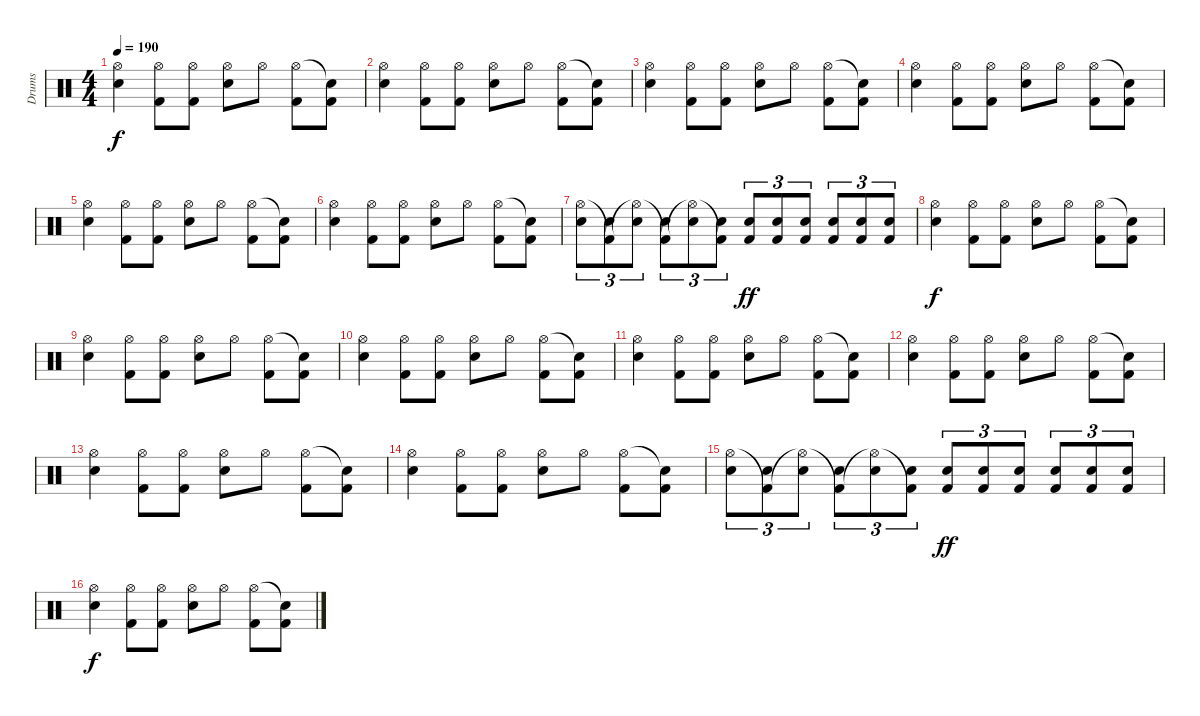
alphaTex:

\track ("Drums" "Drums") {instrument percussion}
\staff {score}
\articulation defaults
\ts (4 4)
\tempo 190
\clef neutral
\ks c
("Electric Snare (hit)" "Hi-Hat (open)").4{dy f} ("Hi-Hat (open)" "Kick (hit) 2").8 ("Hi-Hat (open)" "Kick (hit) 2").8 ("Hi-Hat (open)" "Electric Snare (hit)").8 "Hi-Hat (open)".8 ("Kick (hit) 2" "Hi-Hat (open)").8 ("Kick (hit) 2" "Snare (hit)"{t}).8 |
("Electric Snare (hit)" "Hi-Hat (open)").4 ("Hi-Hat (open)" "Kick (hit) 2").8 ("Hi-Hat (open)" "Kick (hit) 2").8 ("Hi-Hat (open)" "Electric Snare (hit)").8 "Hi-Hat (open)".8 ("Kick (hit) 2" "Hi-Hat (open)").8 ("Kick (hit) 2" "Snare (hit)"{t}).8 |
("Electric Snare (hit)" "Hi-Hat (open)").4 ("Hi-Hat (open)" "Kick (hit) 2").8 ("Hi-Hat (open)" "Kick (hit) 2").8 ("Hi-Hat (open)" "Electric Snare (hit)").8 "Hi-Hat (open)".8 ("Kick (hit) 2" "Hi-Hat (open)").8 ("Kick (hit) 2" "Snare (hit)"{t}).8 |
("Electric Snare (hit)" "Hi-Hat (open)").4 ("Hi-Hat (open)" "Kick (hit) 2").8 ("Hi-Hat (open)" "Kick (hit) 2").8 ("Hi-Hat (open)" "Electric Snare (hit)").8 "Hi-Hat (open)".8 ("Kick (hit) 2" "Hi-Hat (open)").8 ("Kick (hit) 2" "Snare (hit)"{t}).8 |
("Electric Snare (hit)" "Hi-Hat (open)").4 ("Hi-Hat (open)" "Kick (hit) 2").8 ("Hi-Hat (open)" "Kick (hit) 2").8 ("Hi-Hat (open)" "Electric Snare (hit)").8 "Hi-Hat (open)".8 ("Kick (hit) 2" "Hi-Hat (open)").8 ("Kick (hit) 2" "Snare (hit)"{t}).8 |
("Electric Snare (hit)" "Hi-Hat (open)").4 ("Hi-Hat (open)" "Kick (hit) 2").8 ("Hi-Hat (open)" "Kick (hit) 2").8 ("Hi-Hat (open)" "Electric Snare (hit)").8 "Hi-Hat (open)".8 ("Kick (hit) 2" "Hi-Hat (open)").8 ("Kick (hit) 2" "Snare (hit)"{t}).8 |
("Electric Snare (hit)" "Hi-Hat (open)").8{tu (3 2)} ("Electric Snare (hit)" "Kick (hit) 2"{t}).8{tu (3 2)} ("Electric Snare (hit)" "Hi-Hat (open)"{t}).8{tu (3 2)} ("Electric Snare (hit)" "Kick (hit) 2"{t}).8{tu (3 2)} ("Electric Snare (hit)" "Hi-Hat (open)"{t}).8{tu (3 2)} ("Electric Snare (hit)" "Kick (hit) 2"{t}).8{tu (3 2)} ("Electric Snare (hit)" "Kick (hit) 2").8{tu (3 2) dy ff} ("Electric Snare (hit)" "Kick (hit) 2").8{tu (3 2)} ("Electric Snare (hit)" "Kick (hit) 2").8{tu (3 2)} ("Electric Snare (hit)" "Kick (hit) 2").8{tu (3 2)} ("Electric Snare (hit)" "Kick (hit) 2").8{tu (3 2)} ("Electric Snare (hit)" "Kick (hit) 2").8{tu (3 2)} |
("Electric Snare (hit)" "Hi-Hat (open)").4{dy f} ("Hi-Hat (open)" "Kick (hit) 2").8 ("Hi-Hat (open)" "Kick (hit) 2").8 ("Hi-Hat (open)" "Electric Snare (hit)").8 "Hi-Hat (open)".8 ("Kick (hit) 2" "Hi-Hat (open)").8 ("Kick (hit) 2" "Snare (hit)"{t}).8 |
("Electric Snare (hit)" "Hi-Hat (open)").4 ("Hi-Hat (open)" "Kick (hit) 2").8 ("Hi-Hat (open)" "Kick (hit) 2").8 ("Hi-Hat (open)" "Electric Snare (hit)").8 "Hi-Hat (open)".8 ("Kick (hit) 2" "Hi-Hat (open)").8 ("Kick (hit) 2" "Snare (hit)"{t}).8 |
("Electric Snare (hit)" "Hi-Hat (open)").4 ("Hi-Hat (open)" "Kick (hit) 2").8 ("Hi-Hat (open)" "Kick (hit) 2").8 ("Hi-Hat (open)" "Electric Snare (hit)").8 "Hi-Hat (open)".8 ("Kick (hit) 2" "Hi-Hat (open)").8 ("Kick (hit) 2" "Snare (hit)"{t}).8 |
("Electric Snare (hit)" "Hi-Hat (open)").4 ("Hi-Hat (open)" "Kick (hit) 2").8 ("Hi-Hat (open)" "Kick (hit) 2").8 ("Hi-Hat (open)" "Electric Snare (hit)").8 "Hi-Hat (open)".8 ("Kick (hit) 2" "Hi-Hat (open)").8 ("Kick (hit) 2" "Snare (hit)"{t}).8 |
("Electric Snare (hit)" "Hi-Hat (open)").4 ("Hi-Hat (open)" "Kick (hit) 2").8 ("Hi-Hat (open)" "Kick (hit) 2").8 ("Hi-Hat (open)" "Electric Snare (hit)").8 "Hi-Hat (open)".8 ("Kick (hit) 2" "Hi-Hat (open)").8 ("Kick (hit) 2" "Snare (hit)"{t}).8 |
("Electric Snare (hit)" "Hi-Hat (open)").4 ("Hi-Hat (open)" "Kick (hit) 2").8 ("Hi-Hat (open)" "Kick (hit) 2").8 ("Hi-Hat (open)" "Electric Snare (hit)").8 "Hi-Hat (open)".8 ("Kick (hit) 2" "Hi-Hat (open)").8 ("Kick (hit) 2" "Snare (hit)"{t}).8 |
("Electric Snare (hit)" "Hi-Hat (open)").4 ("Hi-Hat (open)" "Kick (hit) 2").8 ("Hi-Hat (open)" "Kick (hit) 2").8 ("Hi-Hat (open)" "Electric Snare (hit)").8 "Hi-Hat (open)".8 ("Kick (hit) 2" "Hi-Hat (open)").8 ("Kick (hit) 2" "Snare (hit)"{t}).8 |
("Electric Snare (hit)" "Hi-Hat (open)").8{tu (3 2)} ("Electric Snare (hit)" "Kick (hit) 2"{t}).8{tu (3 2)} ("Electric Snare (hit)" "Hi-Hat (open)"{t}).8{tu (3 2)} ("Electric Snare (hit)" "Kick (hit) 2"{t}).8{tu (3 2)} ("Electric Snare (hit)" "Hi-Hat (open)"{t}).8{tu (3 2)} ("Electric Snare (hit)" "Kick (hit) 2"{t}).8{tu (3 2)} ("Electric Snare (hit)" "Kick (hit) 2").8{tu (3 2) dy ff} ("Electric Snare (hit)" "Kick (hit) 2").8{tu (3 2)} ("Electric Snare (hit)" "Kick (hit) 2").8{tu (3 2)} ("Electric Snare (hit)" "Kick (hit) 2").8{tu (3 2)} ("Electric Snare (hit)" "Kick (hit) 2").8{tu (3 2)} ("Electric Snare (hit)" "Kick (hit) 2").8{tu (3 2)} |
("Electric Snare (hit)" "Hi-Hat (open)").4{dy f} ("Hi-Hat (open)" "Kick (hit) 2").8 ("Hi-Hat (open)" "Kick (hit) 2").8 ("Hi-Hat (open)" "Electric Snare (hit)").8 "Hi-Hat (open)".8 ("Kick (hit) 2" "Hi-Hat (open)").8 ("Kick (hit) 2" "Snare (hit)"{t}).8
